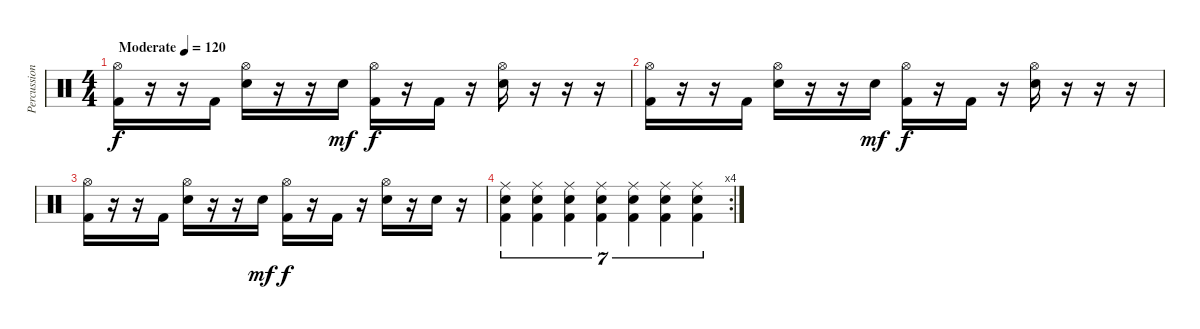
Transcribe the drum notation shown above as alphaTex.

\track ("Percussion" "Percussion") {instrument percussion}
\staff {score}
\articulation defaults
\ts (4 4)
\tempo (120 "Moderate")
\clef neutral
\ks c
("Hi-Hat (open)" "Kick (hit) 2").16{dy f} r.16 r.16 "Kick (hit) 2".16 ("Hi-Hat (open)" "Snare (hit) 2").16 r.16 r.16 "Snare (hit) 2".16{dy mf} ("Hi-Hat (open)" "Kick (hit) 2").16{dy f} r.16 "Kick (hit) 2".16 r.16 ("Hi-Hat (open)" "Snare (hit) 2").16 r.16 r.16 r.16 |
("Hi-Hat (open)" "Kick (hit) 2").16 r.16 r.16 "Kick (hit) 2".16 ("Hi-Hat (open)" "Snare (hit) 2").16 r.16 r.16 "Snare (hit) 2".16{dy mf} ("Hi-Hat (open)" "Kick (hit) 2").16{dy f} r.16 "Kick (hit) 2".16 r.16 ("Hi-Hat (open)" "Snare (hit) 2").16 r.16 r.16 r.16 |
("Hi-Hat (open)" "Kick (hit) 2").16 r.16 r.16 "Kick (hit) 2".16 ("Hi-Hat (open)" "Snare (hit) 2").16 r.16 r.16 "Snare (hit) 2".16{dy mf} ("Hi-Hat (open)" "Kick (hit) 2").16{dy f} r.16 "Kick (hit) 2".16 r.16 ("Hi-Hat (open)" "Snare (hit) 2").16 r.16 "Snare (hit) 2".16 r.16 |
\rc 4
("Ride (middle)" "Snare (hit) 2" "Kick (hit) 2").4{tu (7 4)} ("Ride (middle)" "Snare (hit) 2" "Kick (hit) 2").4{tu (7 4)} ("Ride (middle)" "Snare (hit) 2" "Kick (hit) 2").4{tu (7 4)} ("Ride (middle)" "Snare (hit) 2" "Kick (hit) 2").4{tu (7 4)} ("Ride (middle)" "Snare (hit) 2" "Kick (hit) 2").4{tu (7 4)} ("Ride (middle)" "Snare (hit) 2" "Kick (hit) 2").4{tu (7 4)} ("Ride (middle)" "Snare (hit) 2" "Kick (hit) 2").4{tu (7 4)}
